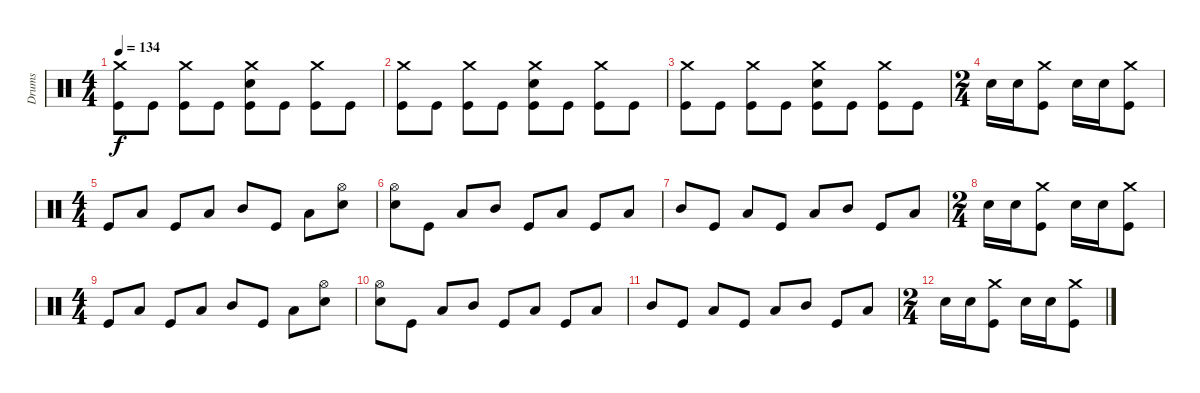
\track ("Drums" "Drums") {instrument percussion}
\staff {score}
\articulation defaults
\ts (4 4)
\tempo 134
\clef neutral
\ks c
("Crash medium (hit)" "Kick (hit)").8{dy f} "Kick (hit)".8 ("Crash medium (hit)" "Kick (hit)").8 "Kick (hit)".8 ("Crash medium (hit)" "Snare (hit) 2" "Kick (hit)").8 "Kick (hit)".8 ("Crash medium (hit)" "Kick (hit)").8 "Kick (hit)".8 |
("Crash medium (hit)" "Kick (hit)").8 "Kick (hit)".8 ("Crash medium (hit)" "Kick (hit)").8 "Kick (hit)".8 ("Crash medium (hit)" "Snare (hit) 2" "Kick (hit)").8 "Kick (hit)".8 ("Crash medium (hit)" "Kick (hit)").8 "Kick (hit)".8 |
("Crash medium (hit)" "Kick (hit)").8 "Kick (hit)".8 ("Crash medium (hit)" "Kick (hit)").8 "Kick (hit)".8 ("Crash medium (hit)" "Snare (hit) 2" "Kick (hit)").8 "Kick (hit)".8 ("Crash medium (hit)" "Kick (hit)").8 "Kick (hit)".8 |
\ts (2 4)
"Snare (hit) 2".16 "Snare (hit) 2".16 ("Crash medium (hit)" "Kick (hit)").8 "Snare (hit) 2".16 "Snare (hit) 2".16 ("Crash medium (hit)" "Kick (hit)").8 |
\ts (4 4)
"Kick (hit)".8 "Low Tom (hit)".8 "Kick (hit)".8 "Low Tom (hit)".8 "Mid Tom (hit)".8 "Kick (hit)".8 "Low Floor Tom (hit)".8 ("Hi-Hat (open)" "Snare (hit) 2").8 |
("Hi-Hat (open)" "Snare (hit) 2").8 "Kick (hit)".8 "Low Tom (hit)".8 "Mid Tom (hit)".8 "Kick (hit)".8 "Low Tom (hit)".8 "Kick (hit)".8 "Low Tom (hit)".8 |
"Mid Tom (hit)".8 "Kick (hit)".8 "Low Tom (hit)".8 "Kick (hit)".8 "Low Tom (hit)".8 "Mid Tom (hit)".8 "Kick (hit)".8 "Low Tom (hit)".8 |
\ts (2 4)
"Snare (hit) 2".16 "Snare (hit) 2".16 ("Crash medium (hit)" "Kick (hit)").8 "Snare (hit) 2".16 "Snare (hit) 2".16 ("Crash medium (hit)" "Kick (hit)").8 |
\ts (4 4)
"Kick (hit)".8 "Low Tom (hit)".8 "Kick (hit)".8 "Low Tom (hit)".8 "Mid Tom (hit)".8 "Kick (hit)".8 "Low Floor Tom (hit)".8 ("Hi-Hat (open)" "Snare (hit) 2").8 |
("Hi-Hat (open)" "Snare (hit) 2").8 "Kick (hit)".8 "Low Tom (hit)".8 "Mid Tom (hit)".8 "Kick (hit)".8 "Low Tom (hit)".8 "Kick (hit)".8 "Low Tom (hit)".8 |
"Mid Tom (hit)".8 "Kick (hit)".8 "Low Tom (hit)".8 "Kick (hit)".8 "Low Tom (hit)".8 "Mid Tom (hit)".8 "Kick (hit)".8 "Low Tom (hit)".8 |
\ts (2 4)
"Snare (hit) 2".16 "Snare (hit) 2".16 ("Crash medium (hit)" "Kick (hit)").8 "Snare (hit) 2".16 "Snare (hit) 2".16 ("Crash medium (hit)" "Kick (hit)").8
